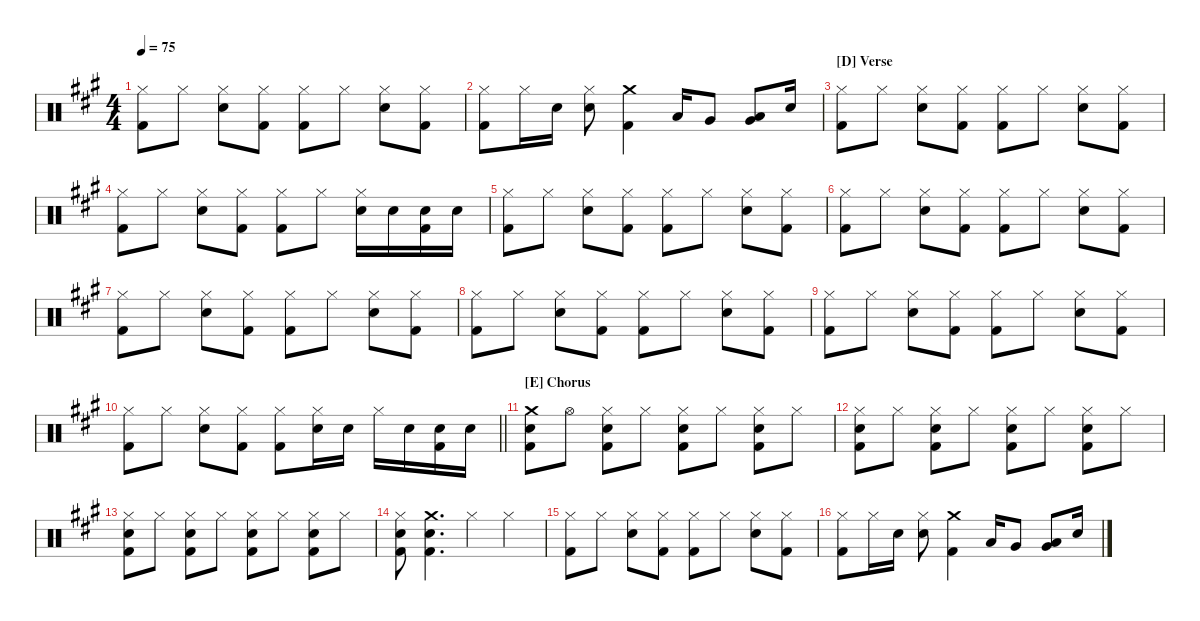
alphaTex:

\hideDynamics
\bracketExtendMode nobrackets
\singleTrackTrackNamePolicy hidden
\multiTrackTrackNamePolicy hidden
\otherSystemsTrackNameOrientation horizontal
\track ("Drumkit" "Drums") {instrument percussion}
\staff {score}
\articulation defaults
\ts (4 4)
\tempo 75
\clef neutral
\scale
0.333333
\ks a
("Hi-Hat (closed)"{acc forcenatural} "Kick (hit) 2"{acc forcenatural}).8{dy mf beam Down} "Hi-Hat (closed)"{acc forcenatural}.8{beam Down} ("Hi-Hat (closed)"{acc forcenatural} "Snare (hit) 2"{acc forcenatural}).8{beam Down} ("Hi-Hat (closed)"{acc forcenatural} "Kick (hit) 2"{acc forcenatural}).8{beam Down} ("Hi-Hat (closed)"{acc forcenatural} "Kick (hit) 2"{acc forcenatural}).8{beam Down} "Hi-Hat (closed)"{acc forcenatural}.8{beam Down} ("Hi-Hat (closed)"{acc forcenatural} "Snare (hit) 2"{acc forcenatural}).8{beam Down} ("Hi-Hat (closed)"{acc forcenatural} "Kick (hit) 2"{acc forcenatural}).8{beam Down} |
\scale
0.333333 ("Hi-Hat (closed)"{acc forcenatural} "Kick (hit) 2"{acc forcenatural}).8{beam Down} "Hi-Hat (closed)"{acc forcenatural}.16{beam Down} "Snare (hit) 2"{acc forcenatural}.16{beam Down} ("Hi-Hat (closed)"{acc forcenatural} "Snare (hit) 2"{acc forcenatural}).8{beam Down} ("Crash medium (hit)"{acc forcenatural} "Kick (hit) 2"{acc forcenatural}).4{beam Down} "Low Tom (hit)"{acc forcenatural}.16{beam Up} "Very Low Tom (hit)"{acc forcenatural}.8{beam Up} ("Low Tom (hit)"{acc forcenatural} "Very Low Tom (hit)"{acc forcenatural}).8{beam Up} "Snare (hit) 2"{acc forcenatural}.16{beam Up} |
\section ("D" "Verse")
("Hi-Hat (closed)"{acc forcenatural} "Kick (hit) 2"{acc forcenatural}).8{beam Down} "Hi-Hat (closed)"{acc forcenatural}.8{beam Down} ("Hi-Hat (closed)"{acc forcenatural} "Snare (hit) 2"{acc forcenatural}).8{beam Down} ("Hi-Hat (closed)"{acc forcenatural} "Kick (hit) 2"{acc forcenatural}).8{beam Down} ("Hi-Hat (closed)"{acc forcenatural} "Kick (hit) 2"{acc forcenatural}).8{beam Down} "Hi-Hat (closed)"{acc forcenatural}.8{beam Down} ("Hi-Hat (closed)"{acc forcenatural} "Snare (hit) 2"{acc forcenatural}).8{beam Down} ("Hi-Hat (closed)"{acc forcenatural} "Kick (hit) 2"{acc forcenatural}).8{beam Down} |
("Kick (hit) 2"{acc forcenatural} "Hi-Hat (closed)"{acc forcenatural}).8{beam Down} "Hi-Hat (closed)"{acc forcenatural}.8{beam Down} ("Snare (hit) 2"{acc forcenatural} "Hi-Hat (closed)"{acc forcenatural}).8{beam Down} ("Kick (hit) 2"{acc forcenatural} "Hi-Hat (closed)"{acc forcenatural}).8{beam Down} ("Kick (hit) 2"{acc forcenatural} "Hi-Hat (closed)"{acc forcenatural}).8{beam Down} "Hi-Hat (closed)"{acc forcenatural}.8{beam Down} ("Snare (hit) 2"{acc forcenatural} "Hi-Hat (closed)"{acc forcenatural}).16{beam Down} "Snare (hit) 2"{acc forcenatural}.16{beam Down} ("Snare (hit) 2"{acc forcenatural} "Kick (hit) 2"{acc forcenatural}).16{beam Down} "Snare (hit) 2"{acc forcenatural}.16{beam Down} |
("Hi-Hat (closed)"{acc forcenatural} "Kick (hit) 2"{acc forcenatural}).8{beam Down} "Hi-Hat (closed)"{acc forcenatural}.8{beam Down} ("Hi-Hat (closed)"{acc forcenatural} "Snare (hit) 2"{acc forcenatural}).8{beam Down} ("Hi-Hat (closed)"{acc forcenatural} "Kick (hit) 2"{acc forcenatural}).8{beam Down} ("Hi-Hat (closed)"{acc forcenatural} "Kick (hit) 2"{acc forcenatural}).8{beam Down} "Hi-Hat (closed)"{acc forcenatural}.8{beam Down} ("Hi-Hat (closed)"{acc forcenatural} "Snare (hit) 2"{acc forcenatural}).8{beam Down} ("Hi-Hat (closed)"{acc forcenatural} "Kick (hit) 2"{acc forcenatural}).8{beam Down} |
("Hi-Hat (closed)"{acc forcenatural} "Kick (hit) 2"{acc forcenatural}).8{beam Down} "Hi-Hat (closed)"{acc forcenatural}.8{beam Down} ("Hi-Hat (closed)"{acc forcenatural} "Snare (hit) 2"{acc forcenatural}).8{beam Down} ("Hi-Hat (closed)"{acc forcenatural} "Kick (hit) 2"{acc forcenatural}).8{beam Down} ("Hi-Hat (closed)"{acc forcenatural} "Kick (hit) 2"{acc forcenatural}).8{beam Down} "Hi-Hat (closed)"{acc forcenatural}.8{beam Down} ("Hi-Hat (closed)"{acc forcenatural} "Snare (hit) 2"{acc forcenatural}).8{beam Down} ("Hi-Hat (closed)"{acc forcenatural} "Kick (hit) 2"{acc forcenatural}).8{beam Down} |
("Hi-Hat (closed)"{acc forcenatural} "Kick (hit) 2"{acc forcenatural}).8{beam Down} "Hi-Hat (closed)"{acc forcenatural}.8{beam Down} ("Hi-Hat (closed)"{acc forcenatural} "Snare (hit) 2"{acc forcenatural}).8{beam Down} ("Hi-Hat (closed)"{acc forcenatural} "Kick (hit) 2"{acc forcenatural}).8{beam Down} ("Hi-Hat (closed)"{acc forcenatural} "Kick (hit) 2"{acc forcenatural}).8{beam Down} "Hi-Hat (closed)"{acc forcenatural}.8{beam Down} ("Hi-Hat (closed)"{acc forcenatural} "Snare (hit) 2"{acc forcenatural}).8{beam Down} ("Hi-Hat (closed)"{acc forcenatural} "Kick (hit) 2"{acc forcenatural}).8{beam Down} |
("Hi-Hat (closed)"{acc forcenatural} "Kick (hit) 2"{acc forcenatural}).8{beam Down} "Hi-Hat (closed)"{acc forcenatural}.8{beam Down} ("Hi-Hat (closed)"{acc forcenatural} "Snare (hit) 2"{acc forcenatural}).8{beam Down} ("Hi-Hat (closed)"{acc forcenatural} "Kick (hit) 2"{acc forcenatural}).8{beam Down} ("Hi-Hat (closed)"{acc forcenatural} "Kick (hit) 2"{acc forcenatural}).8{beam Down} "Hi-Hat (closed)"{acc forcenatural}.8{beam Down} ("Hi-Hat (closed)"{acc forcenatural} "Snare (hit) 2"{acc forcenatural}).8{beam Down} ("Hi-Hat (closed)"{acc forcenatural} "Kick (hit) 2"{acc forcenatural}).8{beam Down} |
("Hi-Hat (closed)"{acc forcenatural} "Kick (hit) 2"{acc forcenatural}).8{beam Down} "Hi-Hat (closed)"{acc forcenatural}.8{beam Down} ("Hi-Hat (closed)"{acc forcenatural} "Snare (hit) 2"{acc forcenatural}).8{beam Down} ("Hi-Hat (closed)"{acc forcenatural} "Kick (hit) 2"{acc forcenatural}).8{beam Down} ("Hi-Hat (closed)"{acc forcenatural} "Kick (hit) 2"{acc forcenatural}).8{beam Down} "Hi-Hat (closed)"{acc forcenatural}.8{beam Down} ("Hi-Hat (closed)"{acc forcenatural} "Snare (hit) 2"{acc forcenatural}).8{beam Down} ("Hi-Hat (closed)"{acc forcenatural} "Kick (hit) 2"{acc forcenatural}).8{beam Down} |
\barLineRight lightlight
("Kick (hit) 2"{acc forcenatural} "Hi-Hat (closed)"{acc forcenatural}).8{beam Down} "Hi-Hat (closed)"{acc forcenatural}.8{beam Down} ("Snare (hit) 2"{acc forcenatural} "Hi-Hat (closed)"{acc forcenatural}).8{beam Down} ("Kick (hit) 2"{acc forcenatural} "Hi-Hat (closed)"{acc forcenatural}).8{beam Down} ("Kick (hit) 2"{acc forcenatural} "Hi-Hat (closed)"{acc forcenatural}).8{beam Down} ("Snare (hit) 2"{acc forcenatural} "Hi-Hat (closed)"{acc forcenatural}).16{beam Down} "Snare (hit) 2"{acc forcenatural}.16{beam Down} "Hi-Hat (closed)"{acc forcenatural}.16{beam Down} "Snare (hit) 2"{acc forcenatural}.16{beam Down} ("Snare (hit) 2"{acc forcenatural} "Kick (hit) 2"{acc forcenatural}).16{beam Down} "Snare (hit) 2"{acc forcenatural}.16{beam Down} |
\section ("E" "Chorus")
("Snare (hit) 2"{acc forcenatural} "Crash medium (hit)"{acc forcenatural} "Kick (hit) 2"{acc forcenatural}).8{beam Down} "Hi-Hat (open)"{acc forcenatural}.8{beam Down} ("Kick (hit) 2"{acc forcenatural} "Hi-Hat (closed)"{acc forcenatural} "Snare (hit) 2"{acc forcenatural}).8{beam Down} "Hi-Hat (closed)"{acc forcenatural}.8{beam Down} ("Kick (hit) 2"{acc forcenatural} "Snare (hit) 2"{acc forcenatural} "Hi-Hat (closed)"{acc forcenatural}).8{beam Down} "Hi-Hat (closed)"{acc forcenatural}.8{beam Down} ("Kick (hit) 2"{acc forcenatural} "Snare (hit) 2"{acc forcenatural} "Hi-Hat (closed)"{acc forcenatural}).8{beam Down} "Hi-Hat (closed)"{acc forcenatural}.8{beam Down} |
("Hi-Hat (closed)"{acc forcenatural} "Snare (hit) 2"{acc forcenatural} "Kick (hit) 2"{acc forcenatural}).8{beam Down} "Hi-Hat (closed)"{acc forcenatural}.8{beam Down} ("Kick (hit) 2"{acc forcenatural} "Hi-Hat (closed)"{acc forcenatural} "Snare (hit) 2"{acc forcenatural}).8{beam Down} "Hi-Hat (closed)"{acc forcenatural}.8{beam Down} ("Kick (hit) 2"{acc forcenatural} "Snare (hit) 2"{acc forcenatural} "Hi-Hat (closed)"{acc forcenatural}).8{beam Down} "Hi-Hat (closed)"{acc forcenatural}.8{beam Down} ("Kick (hit) 2"{acc forcenatural} "Snare (hit) 2"{acc forcenatural} "Hi-Hat (closed)"{acc forcenatural}).8{beam Down} "Hi-Hat (closed)"{acc forcenatural}.8{beam Down} |
("Hi-Hat (closed)"{acc forcenatural} "Snare (hit) 2"{acc forcenatural} "Kick (hit) 2"{acc forcenatural}).8{beam Down} "Hi-Hat (closed)"{acc forcenatural}.8{beam Down} ("Kick (hit) 2"{acc forcenatural} "Hi-Hat (closed)"{acc forcenatural} "Snare (hit) 2"{acc forcenatural}).8{beam Down} "Hi-Hat (closed)"{acc forcenatural}.8{beam Down} ("Kick (hit) 2"{acc forcenatural} "Snare (hit) 2"{acc forcenatural} "Hi-Hat (closed)"{acc forcenatural}).8{beam Down} "Hi-Hat (closed)"{acc forcenatural}.8{beam Down} ("Kick (hit) 2"{acc forcenatural} "Snare (hit) 2"{acc forcenatural} "Hi-Hat (closed)"{acc forcenatural}).8{beam Down} "Hi-Hat (closed)"{acc forcenatural}.8{beam Down} |
("Hi-Hat (closed)"{acc forcenatural} "Snare (hit) 2"{acc forcenatural} "Kick (hit) 2"{acc forcenatural}).8{beam Down} ("Snare (hit) 2"{acc forcenatural} "Kick (hit) 2"{acc forcenatural} "Crash medium (hit)"{acc forcenatural}).4{d beam Down} "Hi-Hat (closed)"{acc forcenatural}.4{beam Down} "Hi-Hat (closed)"{acc forcenatural}.4{beam Down} |
("Hi-Hat (closed)"{acc forcenatural} "Kick (hit) 2"{acc forcenatural}).8{beam Down} "Hi-Hat (closed)"{acc forcenatural}.8{beam Down} ("Hi-Hat (closed)"{acc forcenatural} "Snare (hit) 2"{acc forcenatural}).8{beam Down} ("Hi-Hat (closed)"{acc forcenatural} "Kick (hit) 2"{acc forcenatural}).8{beam Down} ("Hi-Hat (closed)"{acc forcenatural} "Kick (hit) 2"{acc forcenatural}).8{beam Down} "Hi-Hat (closed)"{acc forcenatural}.8{beam Down} ("Hi-Hat (closed)"{acc forcenatural} "Snare (hit) 2"{acc forcenatural}).8{beam Down} ("Hi-Hat (closed)"{acc forcenatural} "Kick (hit) 2"{acc forcenatural}).8{beam Down} |
("Hi-Hat (closed)"{acc forcenatural} "Kick (hit) 2"{acc forcenatural}).8{beam Down} "Hi-Hat (closed)"{acc forcenatural}.16{beam Down} "Snare (hit) 2"{acc forcenatural}.16{beam Down} ("Hi-Hat (closed)"{acc forcenatural} "Snare (hit) 2"{acc forcenatural}).8{beam Down} ("Crash medium (hit)"{acc forcenatural} "Kick (hit) 2"{acc forcenatural}).4{beam Down} "Low Tom (hit)"{acc forcenatural}.16{beam Up} "Very Low Tom (hit)"{acc forcenatural}.8{beam Up} ("Low Tom (hit)"{acc forcenatural} "Very Low Tom (hit)"{acc forcenatural}).8{beam Up} "Snare (hit) 2"{acc forcenatural}.16{beam Up}
